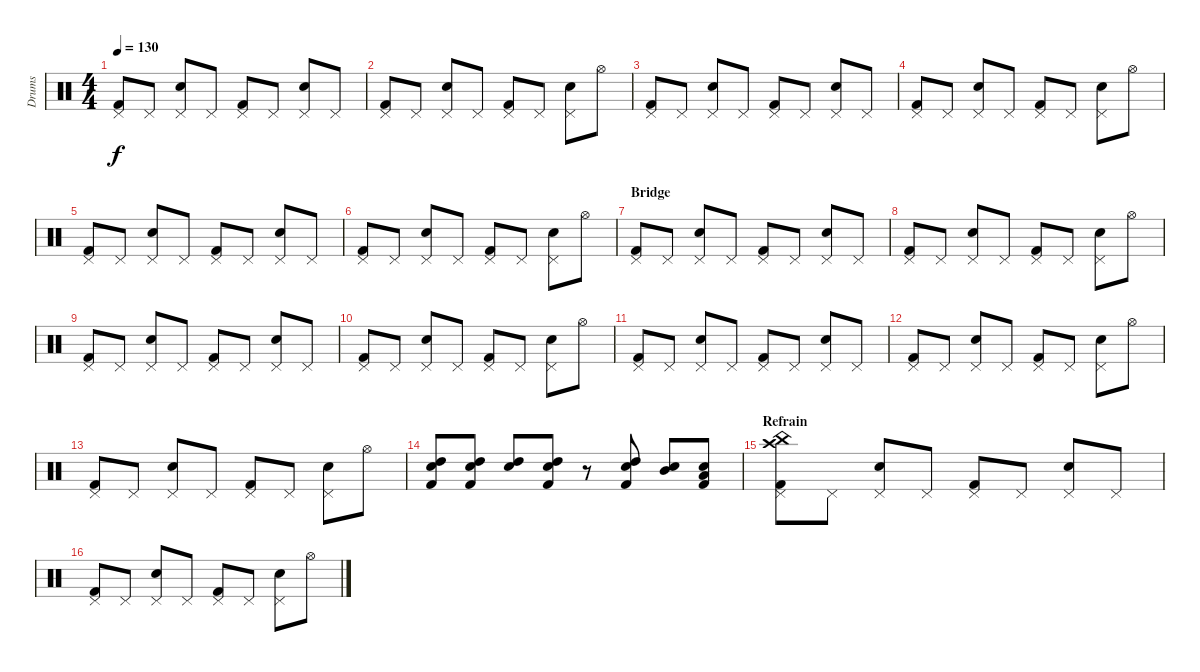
\track ("Drums" "Drums") {instrument percussion}
\staff {score}
\articulation defaults
\ts (4 4)
\tempo 130
\clef neutral
\ks c
("Pedal Hi-Hat (hit)" "Kick (hit) 2").8{dy f} "Pedal Hi-Hat (hit)".8 ("Pedal Hi-Hat (hit)" "Snare (hit) 2").8 "Pedal Hi-Hat (hit)".8 ("Pedal Hi-Hat (hit)" "Kick (hit) 2").8 "Pedal Hi-Hat (hit)".8 ("Pedal Hi-Hat (hit)" "Snare (hit) 2").8 "Pedal Hi-Hat (hit)".8 |
("Pedal Hi-Hat (hit)" "Kick (hit) 2").8 "Pedal Hi-Hat (hit)".8 ("Pedal Hi-Hat (hit)" "Snare (hit) 2").8 "Pedal Hi-Hat (hit)".8 ("Pedal Hi-Hat (hit)" "Kick (hit) 2").8 "Pedal Hi-Hat (hit)".8 ("Pedal Hi-Hat (hit)" "Snare (hit) 2").8 "Hi-Hat (open)".8 |
("Pedal Hi-Hat (hit)" "Kick (hit) 2").8 "Pedal Hi-Hat (hit)".8 ("Pedal Hi-Hat (hit)" "Snare (hit) 2").8 "Pedal Hi-Hat (hit)".8 ("Pedal Hi-Hat (hit)" "Kick (hit) 2").8 "Pedal Hi-Hat (hit)".8 ("Pedal Hi-Hat (hit)" "Snare (hit) 2").8 "Pedal Hi-Hat (hit)".8 |
("Pedal Hi-Hat (hit)" "Kick (hit) 2").8 "Pedal Hi-Hat (hit)".8 ("Pedal Hi-Hat (hit)" "Snare (hit) 2").8 "Pedal Hi-Hat (hit)".8 ("Pedal Hi-Hat (hit)" "Kick (hit) 2").8 "Pedal Hi-Hat (hit)".8 ("Pedal Hi-Hat (hit)" "Snare (hit) 2").8 "Hi-Hat (open)".8 |
("Pedal Hi-Hat (hit)" "Kick (hit) 2").8 "Pedal Hi-Hat (hit)".8 ("Pedal Hi-Hat (hit)" "Snare (hit) 2").8 "Pedal Hi-Hat (hit)".8 ("Pedal Hi-Hat (hit)" "Kick (hit) 2").8 "Pedal Hi-Hat (hit)".8 ("Pedal Hi-Hat (hit)" "Snare (hit) 2").8 "Pedal Hi-Hat (hit)".8 |
("Pedal Hi-Hat (hit)" "Kick (hit) 2").8 "Pedal Hi-Hat (hit)".8 ("Pedal Hi-Hat (hit)" "Snare (hit) 2").8 "Pedal Hi-Hat (hit)".8 ("Pedal Hi-Hat (hit)" "Kick (hit) 2").8 "Pedal Hi-Hat (hit)".8 ("Pedal Hi-Hat (hit)" "Snare (hit) 2").8 "Hi-Hat (open)".8 |
\section ("" "Bridge")
("Pedal Hi-Hat (hit)" "Kick (hit) 2").8 "Pedal Hi-Hat (hit)".8 ("Pedal Hi-Hat (hit)" "Snare (hit) 2").8 "Pedal Hi-Hat (hit)".8 ("Pedal Hi-Hat (hit)" "Kick (hit) 2").8 "Pedal Hi-Hat (hit)".8 ("Pedal Hi-Hat (hit)" "Snare (hit) 2").8 "Pedal Hi-Hat (hit)".8 |
("Pedal Hi-Hat (hit)" "Kick (hit) 2").8 "Pedal Hi-Hat (hit)".8 ("Pedal Hi-Hat (hit)" "Snare (hit) 2").8 "Pedal Hi-Hat (hit)".8 ("Pedal Hi-Hat (hit)" "Kick (hit) 2").8 "Pedal Hi-Hat (hit)".8 ("Pedal Hi-Hat (hit)" "Snare (hit) 2").8 "Hi-Hat (open)".8 |
("Pedal Hi-Hat (hit)" "Kick (hit) 2").8 "Pedal Hi-Hat (hit)".8 ("Pedal Hi-Hat (hit)" "Snare (hit) 2").8 "Pedal Hi-Hat (hit)".8 ("Pedal Hi-Hat (hit)" "Kick (hit) 2").8 "Pedal Hi-Hat (hit)".8 ("Pedal Hi-Hat (hit)" "Snare (hit) 2").8 "Pedal Hi-Hat (hit)".8 |
("Pedal Hi-Hat (hit)" "Kick (hit) 2").8 "Pedal Hi-Hat (hit)".8 ("Pedal Hi-Hat (hit)" "Snare (hit) 2").8 "Pedal Hi-Hat (hit)".8 ("Pedal Hi-Hat (hit)" "Kick (hit) 2").8 "Pedal Hi-Hat (hit)".8 ("Pedal Hi-Hat (hit)" "Snare (hit) 2").8 "Hi-Hat (open)".8 |
("Pedal Hi-Hat (hit)" "Kick (hit) 2").8 "Pedal Hi-Hat (hit)".8 ("Pedal Hi-Hat (hit)" "Snare (hit) 2").8 "Pedal Hi-Hat (hit)".8 ("Pedal Hi-Hat (hit)" "Kick (hit) 2").8 "Pedal Hi-Hat (hit)".8 ("Pedal Hi-Hat (hit)" "Snare (hit) 2").8 "Pedal Hi-Hat (hit)".8 |
("Pedal Hi-Hat (hit)" "Kick (hit) 2").8 "Pedal Hi-Hat (hit)".8 ("Pedal Hi-Hat (hit)" "Snare (hit) 2").8 "Pedal Hi-Hat (hit)".8 ("Pedal Hi-Hat (hit)" "Kick (hit) 2").8 "Pedal Hi-Hat (hit)".8 ("Pedal Hi-Hat (hit)" "Snare (hit) 2").8 "Hi-Hat (open)".8 |
("Pedal Hi-Hat (hit)" "Kick (hit) 2").8 "Pedal Hi-Hat (hit)".8 ("Pedal Hi-Hat (hit)" "Snare (hit) 2").8 "Pedal Hi-Hat (hit)".8 ("Pedal Hi-Hat (hit)" "Kick (hit) 2").8 "Pedal Hi-Hat (hit)".8 ("Pedal Hi-Hat (hit)" "Snare (hit) 2").8 "Hi-Hat (open)".8 |
("Snare (hit) 2" "High Tom (hit)" "Kick (hit) 2").8 ("Snare (hit) 2" "High Tom (hit)" "Kick (hit) 2").8 ("Snare (hit) 2" "High Tom (hit)").8 ("Snare (hit) 2" "High Tom (hit)" "Kick (hit) 2").8 r.8 ("Snare (hit) 2" "High Tom (hit)" "Kick (hit) 2").8 ("Snare (hit) 2" "Mid Tom (hit)").8 ("Snare (hit) 2" "Low Tom (hit)" "Kick (hit) 2").8 |
\section ("" "Refrain")
("China (hit)" "Pedal Hi-Hat (hit)" "Crash high (hit)" "Kick (hit) 2").8 "Pedal Hi-Hat (hit)".8 ("Pedal Hi-Hat (hit)" "Snare (hit) 2").8 "Pedal Hi-Hat (hit)".8 ("Pedal Hi-Hat (hit)" "Kick (hit) 2").8 "Pedal Hi-Hat (hit)".8 ("Pedal Hi-Hat (hit)" "Snare (hit) 2").8 "Pedal Hi-Hat (hit)".8 |
("Pedal Hi-Hat (hit)" "Kick (hit) 2").8 "Pedal Hi-Hat (hit)".8 ("Pedal Hi-Hat (hit)" "Snare (hit) 2").8 "Pedal Hi-Hat (hit)".8 ("Pedal Hi-Hat (hit)" "Kick (hit) 2").8 "Pedal Hi-Hat (hit)".8 ("Pedal Hi-Hat (hit)" "Snare (hit) 2").8 "Hi-Hat (open)".8
